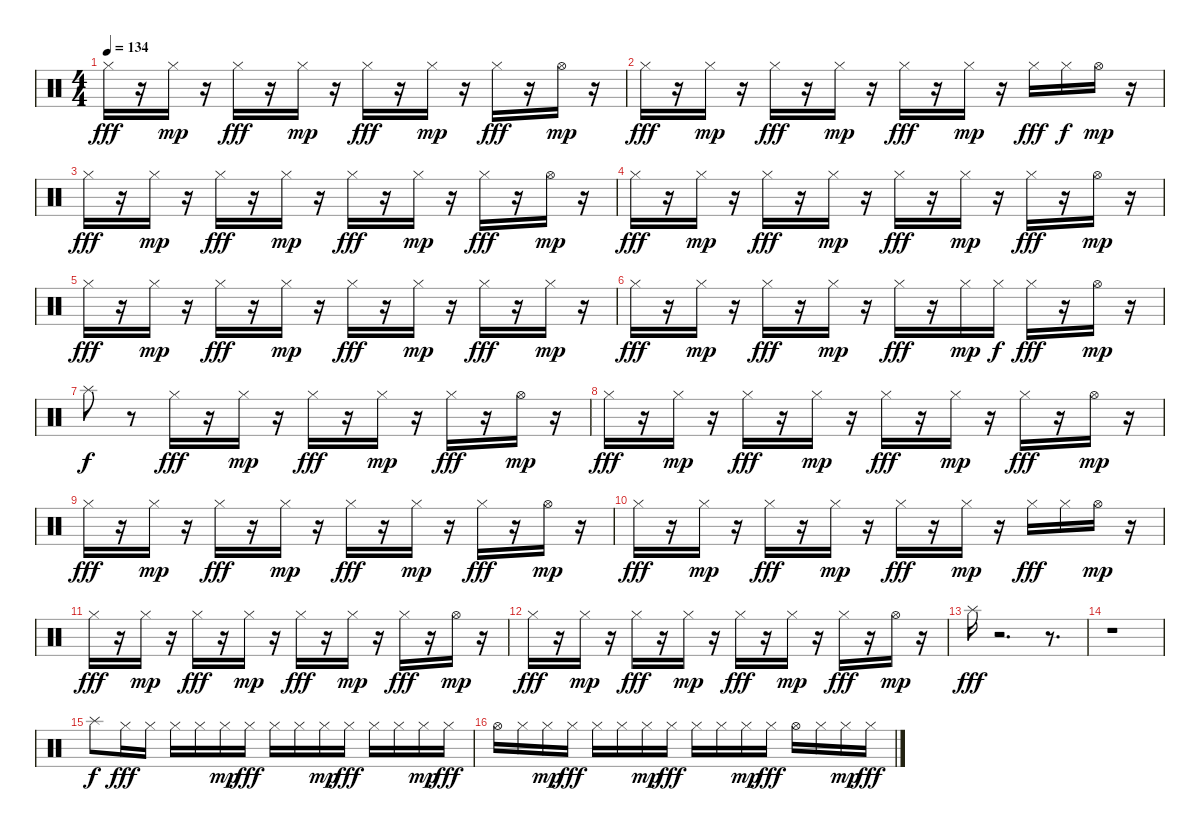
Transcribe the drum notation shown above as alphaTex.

\track "" {instrument percussion}
\staff {score}
\articulation defaults
\ts (4 4)
\tempo 134
\clef neutral
\ks c "Hi-Hat (closed)".16{dy fff}
r.16 "Hi-Hat (closed)".16{dy mp} r.16 "Hi-Hat (closed)".16{dy fff} r.16 "Hi-Hat (closed)".16{dy mp} r.16 "Hi-Hat (closed)".16{dy fff} r.16 "Hi-Hat (closed)".16{dy mp} r.16 "Hi-Hat (closed)".16{dy fff} r.16 "Hi-Hat (open)".16{dy mp} r.16 |
"Hi-Hat (closed)".16{dy fff} r.16 "Hi-Hat (closed)".16{dy mp} r.16 "Hi-Hat (closed)".16{dy fff} r.16 "Hi-Hat (closed)".16{dy mp} r.16 "Hi-Hat (closed)".16{dy fff} r.16 "Hi-Hat (closed)".16{dy mp} r.16 "Hi-Hat (closed)".16{dy fff} "Hi-Hat (closed)".16{dy f} "Hi-Hat (open)".16{dy mp} r.16 |
"Hi-Hat (closed)".16{dy fff} r.16 "Hi-Hat (closed)".16{dy mp} r.16 "Hi-Hat (closed)".16{dy fff} r.16 "Hi-Hat (closed)".16{dy mp} r.16 "Hi-Hat (closed)".16{dy fff} r.16 "Hi-Hat (closed)".16{dy mp} r.16 "Hi-Hat (closed)".16{dy fff} r.16 "Hi-Hat (open)".16{dy mp} r.16 |
"Hi-Hat (closed)".16{dy fff} r.16 "Hi-Hat (closed)".16{dy mp} r.16 "Hi-Hat (closed)".16{dy fff} r.16 "Hi-Hat (closed)".16{dy mp} r.16 "Hi-Hat (closed)".16{dy fff} r.16 "Hi-Hat (closed)".16{dy mp} r.16 "Hi-Hat (closed)".16{dy fff} r.16 "Hi-Hat (open)".16{dy mp} r.16 |
"Hi-Hat (closed)".16{dy fff} r.16 "Hi-Hat (closed)".16{dy mp} r.16 "Hi-Hat (closed)".16{dy fff} r.16 "Hi-Hat (closed)".16{dy mp} r.16 "Hi-Hat (closed)".16{dy fff} r.16 "Hi-Hat (closed)".16{dy mp} r.16 "Hi-Hat (closed)".16{dy fff} r.16 "Hi-Hat (closed)".16{dy mp} r.16 |
"Hi-Hat (closed)".16{dy fff} r.16 "Hi-Hat (closed)".16{dy mp} r.16 "Hi-Hat (closed)".16{dy fff} r.16 "Hi-Hat (closed)".16{dy mp} r.16 "Hi-Hat (closed)".16{dy fff} r.16 "Hi-Hat (closed)".16{dy mp} "Hi-Hat (closed)".16{dy f} "Hi-Hat (closed)".16{dy fff} r.16 "Hi-Hat (open)".16{dy mp} r.16 |
"Splash (hit)".8{dy f} r.8 "Hi-Hat (closed)".16{dy fff} r.16 "Hi-Hat (closed)".16{dy mp} r.16 "Hi-Hat (closed)".16{dy fff} r.16 "Hi-Hat (closed)".16{dy mp} r.16 "Hi-Hat (closed)".16{dy fff} r.16 "Hi-Hat (open)".16{dy mp} r.16 |
"Hi-Hat (closed)".16{dy fff} r.16 "Hi-Hat (closed)".16{dy mp} r.16 "Hi-Hat (closed)".16{dy fff} r.16 "Hi-Hat (closed)".16{dy mp} r.16 "Hi-Hat (closed)".16{dy fff} r.16 "Hi-Hat (closed)".16{dy mp} r.16 "Hi-Hat (closed)".16{dy fff} r.16 "Hi-Hat (open)".16{dy mp} r.16 |
"Hi-Hat (closed)".16{dy fff} r.16 "Hi-Hat (closed)".16{dy mp} r.16 "Hi-Hat (closed)".16{dy fff} r.16 "Hi-Hat (closed)".16{dy mp} r.16 "Hi-Hat (closed)".16{dy fff} r.16 "Hi-Hat (closed)".16{dy mp} r.16 "Hi-Hat (closed)".16{dy fff} r.16 "Hi-Hat (open)".16{dy mp} r.16 |
"Hi-Hat (closed)".16{dy fff} r.16 "Hi-Hat (closed)".16{dy mp} r.16 "Hi-Hat (closed)".16{dy fff} r.16 "Hi-Hat (closed)".16{dy mp} r.16 "Hi-Hat (closed)".16{dy fff} r.16 "Hi-Hat (closed)".16{dy mp} r.16 "Hi-Hat (closed)".16{dy fff} "Hi-Hat (closed)".16 "Hi-Hat (open)".16{dy mp} r.16 |
"Hi-Hat (closed)".16{dy fff} r.16 "Hi-Hat (closed)".16{dy mp} r.16 "Hi-Hat (closed)".16{dy fff} r.16 "Hi-Hat (closed)".16{dy mp} r.16 "Hi-Hat (closed)".16{dy fff} r.16 "Hi-Hat (closed)".16{dy mp} r.16 "Hi-Hat (closed)".16{dy fff} r.16 "Hi-Hat (open)".16{dy mp} r.16 |
"Hi-Hat (closed)".16{dy fff} r.16 "Hi-Hat (closed)".16{dy mp} r.16 "Hi-Hat (closed)".16{dy fff} r.16 "Hi-Hat (closed)".16{dy mp} r.16 "Hi-Hat (closed)".16{dy fff} r.16 "Hi-Hat (closed)".16{dy mp} r.16 "Hi-Hat (closed)".16{dy fff} r.16 "Hi-Hat (open)".16{dy mp} r.16 |
"Splash (hit)".16{dy fff} r.2{d} r.8{d} |
r.1 |
"Splash (hit)".8{dy f} "Hi-Hat (closed)".16{dy fff} "Hi-Hat (closed)".16 "Hi-Hat (closed)".16 "Hi-Hat (closed)".16 "Hi-Hat (closed)".16{dy mp} "Hi-Hat (closed)".16{dy fff} "Hi-Hat (closed)".16 "Hi-Hat (closed)".16 "Hi-Hat (closed)".16{dy mp} "Hi-Hat (closed)".16{dy fff} "Hi-Hat (closed)".16 "Hi-Hat (closed)".16 "Hi-Hat (closed)".16{dy mp} "Hi-Hat (closed)".16{dy fff} |
"Hi-Hat (open)".16 "Hi-Hat (closed)".16 "Hi-Hat (closed)".16{dy mp} "Hi-Hat (closed)".16{dy fff} "Hi-Hat (closed)".16 "Hi-Hat (closed)".16 "Hi-Hat (closed)".16{dy mp} "Hi-Hat (closed)".16{dy fff} "Hi-Hat (closed)".16 "Hi-Hat (closed)".16 "Hi-Hat (closed)".16{dy mp} "Hi-Hat (closed)".16{dy fff} "Hi-Hat (open)".16 "Hi-Hat (closed)".16 "Hi-Hat (closed)".16{dy mp} "Hi-Hat (closed)".16{dy fff}
